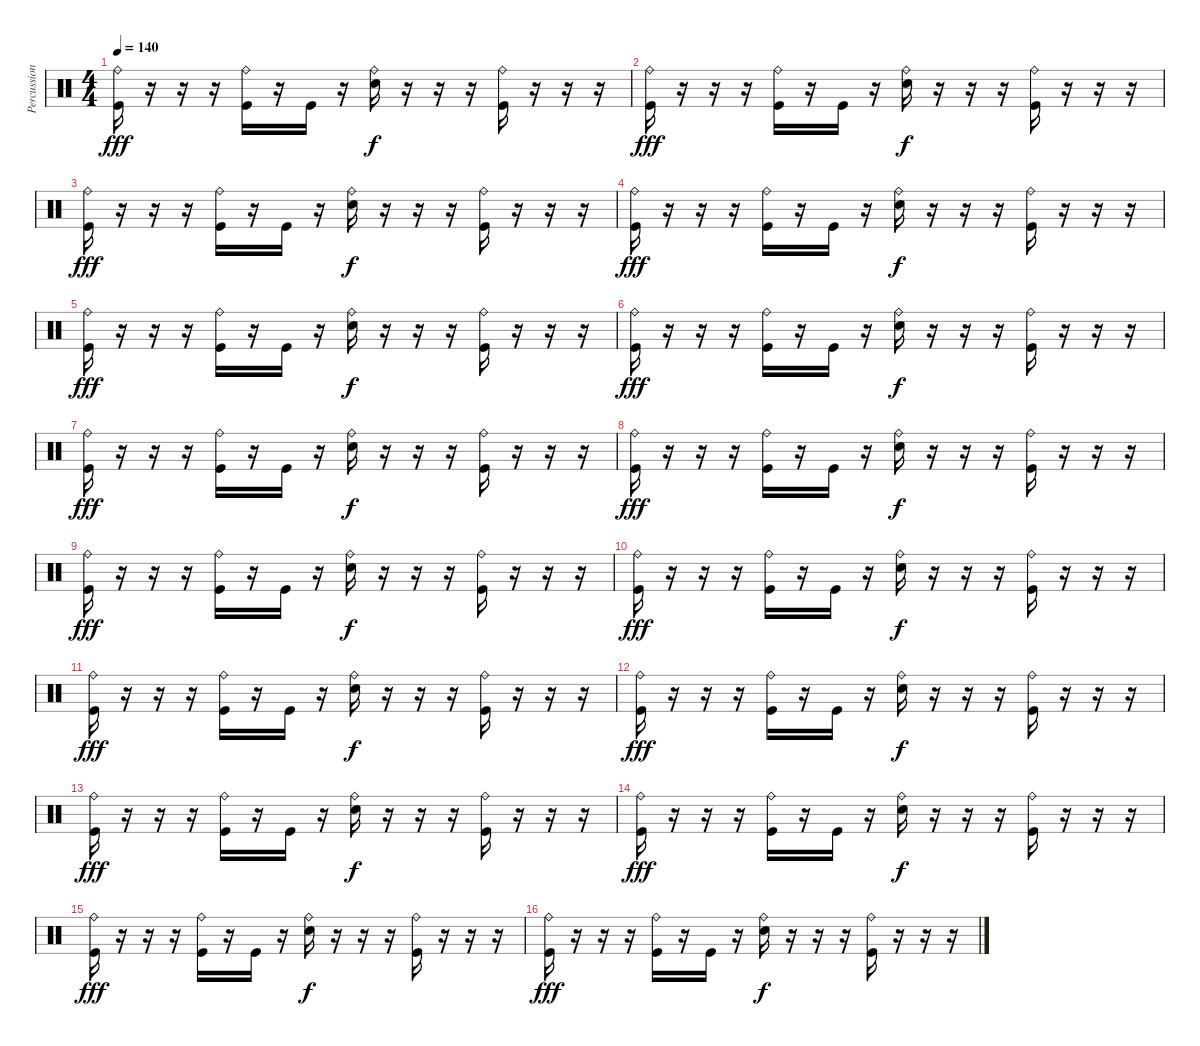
\track ("Percussion" "Percussion") {instrument percussion}
\staff {score}
\articulation defaults
\ts (4 4)
\tempo 140
\clef neutral
\ks c
("Ride (bell)" "Kick (hit)").16{dy fff} r.16 r.16 r.16 ("Ride (bell)" "Kick (hit)").16 r.16 "Kick (hit)".16 r.16 ("Ride (bell)" "Snare (hit) 2").16{dy f} r.16 r.16 r.16 ("Ride (bell)" "Kick (hit)").16 r.16 r.16 r.16 |
("Ride (bell)" "Kick (hit)").16{dy fff} r.16 r.16 r.16 ("Ride (bell)" "Kick (hit)").16 r.16 "Kick (hit)".16 r.16 ("Ride (bell)" "Snare (hit) 2").16{dy f} r.16 r.16 r.16 ("Ride (bell)" "Kick (hit)").16 r.16 r.16 r.16 |
("Ride (bell)" "Kick (hit)").16{dy fff} r.16 r.16 r.16 ("Ride (bell)" "Kick (hit)").16 r.16 "Kick (hit)".16 r.16 ("Ride (bell)" "Snare (hit) 2").16{dy f} r.16 r.16 r.16 ("Ride (bell)" "Kick (hit)").16 r.16 r.16 r.16 |
("Ride (bell)" "Kick (hit)").16{dy fff} r.16 r.16 r.16 ("Ride (bell)" "Kick (hit)").16 r.16 "Kick (hit)".16 r.16 ("Ride (bell)" "Snare (hit) 2").16{dy f} r.16 r.16 r.16 ("Ride (bell)" "Kick (hit)").16 r.16 r.16 r.16 |
("Ride (bell)" "Kick (hit)").16{dy fff} r.16 r.16 r.16 ("Ride (bell)" "Kick (hit)").16 r.16 "Kick (hit)".16 r.16 ("Ride (bell)" "Snare (hit) 2").16{dy f} r.16 r.16 r.16 ("Ride (bell)" "Kick (hit)").16 r.16 r.16 r.16 |
("Ride (bell)" "Kick (hit)").16{dy fff} r.16 r.16 r.16 ("Ride (bell)" "Kick (hit)").16 r.16 "Kick (hit)".16 r.16 ("Ride (bell)" "Snare (hit) 2").16{dy f} r.16 r.16 r.16 ("Ride (bell)" "Kick (hit)").16 r.16 r.16 r.16 |
("Ride (bell)" "Kick (hit)").16{dy fff} r.16 r.16 r.16 ("Ride (bell)" "Kick (hit)").16 r.16 "Kick (hit)".16 r.16 ("Ride (bell)" "Snare (hit) 2").16{dy f} r.16 r.16 r.16 ("Ride (bell)" "Kick (hit)").16 r.16 r.16 r.16 |
("Ride (bell)" "Kick (hit)").16{dy fff} r.16 r.16 r.16 ("Ride (bell)" "Kick (hit)").16 r.16 "Kick (hit)".16 r.16 ("Ride (bell)" "Snare (hit) 2").16{dy f} r.16 r.16 r.16 ("Ride (bell)" "Kick (hit)").16 r.16 r.16 r.16 |
("Ride (bell)" "Kick (hit)").16{dy fff} r.16 r.16 r.16 ("Ride (bell)" "Kick (hit)").16 r.16 "Kick (hit)".16 r.16 ("Ride (bell)" "Snare (hit) 2").16{dy f} r.16 r.16 r.16 ("Ride (bell)" "Kick (hit)").16 r.16 r.16 r.16 |
("Ride (bell)" "Kick (hit)").16{dy fff} r.16 r.16 r.16 ("Ride (bell)" "Kick (hit)").16 r.16 "Kick (hit)".16 r.16 ("Ride (bell)" "Snare (hit) 2").16{dy f} r.16 r.16 r.16 ("Ride (bell)" "Kick (hit)").16 r.16 r.16 r.16 |
("Ride (bell)" "Kick (hit)").16{dy fff} r.16 r.16 r.16 ("Ride (bell)" "Kick (hit)").16 r.16 "Kick (hit)".16 r.16 ("Ride (bell)" "Snare (hit) 2").16{dy f} r.16 r.16 r.16 ("Ride (bell)" "Kick (hit)").16 r.16 r.16 r.16 |
("Ride (bell)" "Kick (hit)").16{dy fff} r.16 r.16 r.16 ("Ride (bell)" "Kick (hit)").16 r.16 "Kick (hit)".16 r.16 ("Ride (bell)" "Snare (hit) 2").16{dy f} r.16 r.16 r.16 ("Ride (bell)" "Kick (hit)").16 r.16 r.16 r.16 |
("Ride (bell)" "Kick (hit)").16{dy fff} r.16 r.16 r.16 ("Ride (bell)" "Kick (hit)").16 r.16 "Kick (hit)".16 r.16 ("Ride (bell)" "Snare (hit) 2").16{dy f} r.16 r.16 r.16 ("Ride (bell)" "Kick (hit)").16 r.16 r.16 r.16 |
("Ride (bell)" "Kick (hit)").16{dy fff} r.16 r.16 r.16 ("Ride (bell)" "Kick (hit)").16 r.16 "Kick (hit)".16 r.16 ("Ride (bell)" "Snare (hit) 2").16{dy f} r.16 r.16 r.16 ("Ride (bell)" "Kick (hit)").16 r.16 r.16 r.16 |
("Ride (bell)" "Kick (hit)").16{dy fff} r.16 r.16 r.16 ("Ride (bell)" "Kick (hit)").16 r.16 "Kick (hit)".16 r.16 ("Ride (bell)" "Snare (hit) 2").16{dy f} r.16 r.16 r.16 ("Ride (bell)" "Kick (hit)").16 r.16 r.16 r.16 |
("Ride (bell)" "Kick (hit)").16{dy fff} r.16 r.16 r.16 ("Ride (bell)" "Kick (hit)").16 r.16 "Kick (hit)".16 r.16 ("Ride (bell)" "Snare (hit) 2").16{dy f} r.16 r.16 r.16 ("Ride (bell)" "Kick (hit)").16 r.16 r.16 r.16
